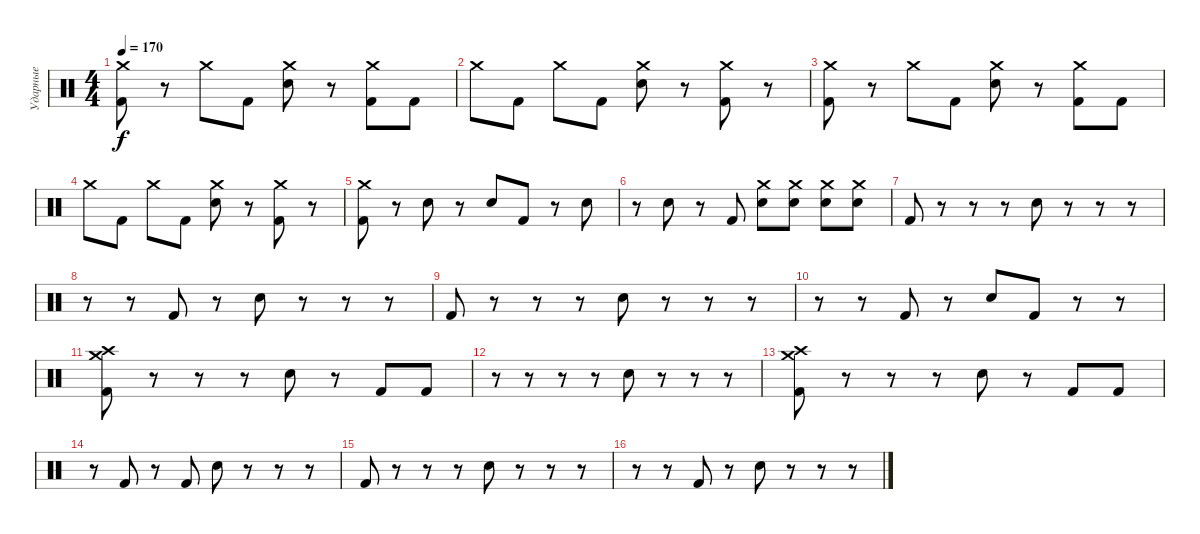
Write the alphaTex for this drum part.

\track ("Ударные" "Ударные") {instrument percussion}
\staff
\articulation defaults
\ts (4 4)
\tempo 170
\clef neutral
\ks c
("Crash medium (hit)" "Kick (hit) 2").8{dy f} r.8 "Crash medium (hit)".8 "Kick (hit) 2".8 ("Crash medium (hit)" "Electric Snare (hit)").8 r.8 ("Crash medium (hit)" "Kick (hit) 2").8 "Kick (hit) 2".8 |
"Crash medium (hit)".8 "Kick (hit) 2".8 "Crash medium (hit)".8 "Kick (hit) 2".8 ("Crash medium (hit)" "Electric Snare (hit)").8 r.8 ("Crash medium (hit)" "Kick (hit) 2").8 r.8 |
("Crash medium (hit)" "Kick (hit) 2").8 r.8 "Crash medium (hit)".8 "Kick (hit) 2".8 ("Crash medium (hit)" "Electric Snare (hit)").8 r.8 ("Crash medium (hit)" "Kick (hit) 2").8 "Kick (hit) 2".8 |
"Crash medium (hit)".8 "Kick (hit) 2".8 "Crash medium (hit)".8 "Kick (hit) 2".8 ("Crash medium (hit)" "Electric Snare (hit)").8 r.8 ("Crash medium (hit)" "Kick (hit) 2").8 r.8 |
("Crash medium (hit)" "Kick (hit) 2").8 r.8 "Electric Snare (hit)".8 r.8 "Electric Snare (hit)".8 "Kick (hit) 2".8 r.8 "Electric Snare (hit)".8 |
r.8 "Electric Snare (hit)".8 r.8 "Kick (hit) 2".8 ("Crash medium (hit)" "Electric Snare (hit)").8 ("Crash medium (hit)" "Electric Snare (hit)").8 ("Crash medium (hit)" "Electric Snare (hit)").8 ("Crash medium (hit)" "Electric Snare (hit)").8 |
"Kick (hit) 2".8 r.8 r.8 r.8 "Electric Snare (hit)".8 r.8 r.8 r.8 |
r.8 r.8 "Kick (hit) 2".8 r.8 "Electric Snare (hit)".8 r.8 r.8 r.8 |
"Kick (hit) 2".8 r.8 r.8 r.8 "Electric Snare (hit)".8 r.8 r.8 r.8 |
r.8 r.8 "Kick (hit) 2".8 r.8 "Electric Snare (hit)".8 "Kick (hit) 2".8 r.8 r.8 |
("Crash high (hit)" "Crash medium (hit)" "Kick (hit) 2").8 r.8 r.8 r.8 "Electric Snare (hit)".8 r.8 "Kick (hit) 2".8 "Kick (hit) 2".8 |
r.8 r.8 r.8 r.8 "Electric Snare (hit)".8 r.8 r.8 r.8 |
("Crash high (hit)" "Crash medium (hit)" "Kick (hit) 2").8 r.8 r.8 r.8 "Electric Snare (hit)".8 r.8 "Kick (hit) 2".8 "Kick (hit) 2".8 |
r.8 "Kick (hit) 2".8 r.8 "Kick (hit) 2".8 "Electric Snare (hit)".8 r.8 r.8 r.8 |
"Kick (hit) 2".8 r.8 r.8 r.8 "Electric Snare (hit)".8 r.8 r.8 r.8 |
r.8 r.8 "Kick (hit) 2".8 r.8 "Electric Snare (hit)".8 r.8 r.8 r.8
